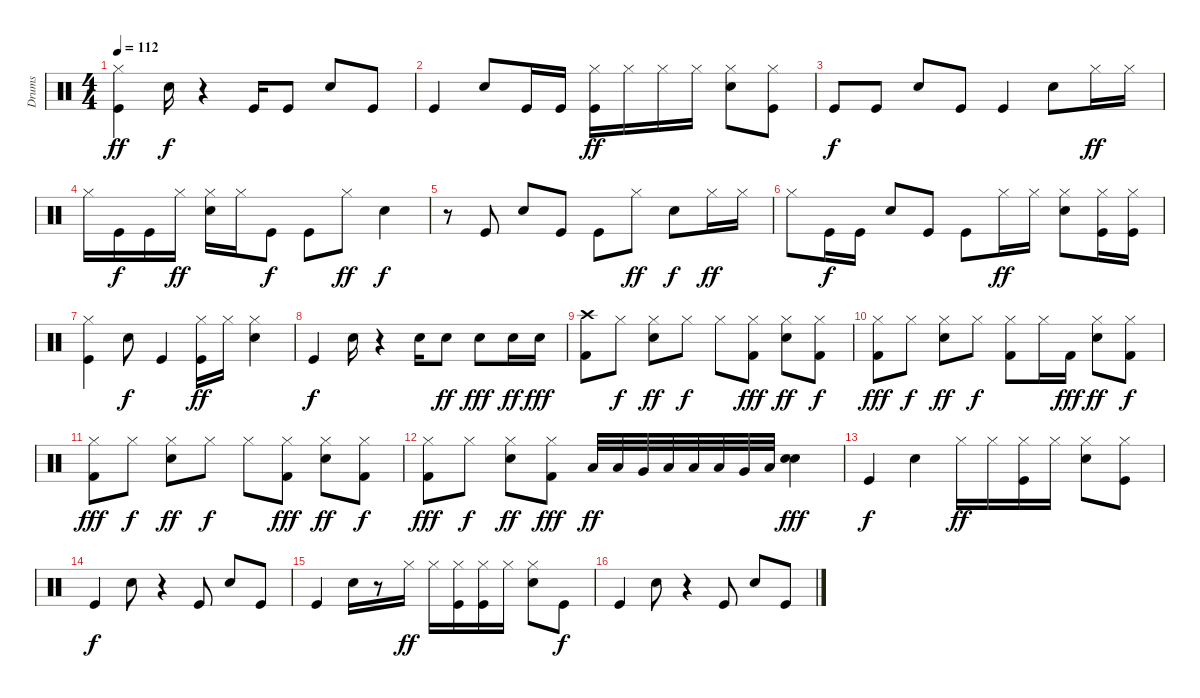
\track ("Drums" "Drums") {instrument percussion}
\staff {score}
\articulation defaults
\ts (4 4)
\tempo 112
\clef neutral
\ks c
("Hi-Hat (closed)" "Kick (hit)").4{dy ff} "Snare (hit) 2".16{dy f} r.4 "Kick (hit)".16 "Kick (hit)".8 "Snare (hit) 2".8 "Kick (hit)".8 |
"Kick (hit)".4 "Snare (hit) 2".8 "Kick (hit)".16 "Kick (hit)".16 ("Hi-Hat (closed)" "Kick (hit)").16{dy ff} "Hi-Hat (closed)".16 "Hi-Hat (closed)".16 "Hi-Hat (closed)".16 ("Hi-Hat (closed)" "Snare (hit) 2").8 ("Kick (hit)" "Hi-Hat (closed)").8 |
"Kick (hit)".8{dy f} "Kick (hit)".8 "Snare (hit) 2".8 "Kick (hit)".8 "Kick (hit)".4 "Snare (hit) 2".8 "Hi-Hat (closed)".16{dy ff} "Hi-Hat (closed)".16 |
"Hi-Hat (closed)".16 "Kick (hit)".16{dy f} "Kick (hit)".16 "Hi-Hat (closed)".16{dy ff} ("Hi-Hat (closed)" "Snare (hit) 2").16 "Hi-Hat (closed)".16 "Kick (hit)".8{dy f} "Kick (hit)".8 "Hi-Hat (closed)".8{dy ff} "Snare (hit) 2".4{dy f} |
r.8 "Kick (hit)".8 "Snare (hit) 2".8 "Kick (hit)".8 "Kick (hit)".8 "Hi-Hat (closed)".8{dy ff} "Snare (hit) 2".8{dy f} "Hi-Hat (closed)".16{dy ff} "Hi-Hat (closed)".16 |
"Hi-Hat (closed)".8 "Kick (hit)".16{dy f} "Kick (hit)".16 "Snare (hit) 2".8 "Kick (hit)".8 "Kick (hit)".8 "Hi-Hat (closed)".16{dy ff} "Hi-Hat (closed)".16 ("Hi-Hat (closed)" "Snare (hit) 2").8 ("Hi-Hat (closed)" "Kick (hit)").16 ("Hi-Hat (closed)" "Kick (hit)").16 |
("Hi-Hat (closed)" "Kick (hit)").4 "Snare (hit) 2".8{dy f} "Kick (hit)".4 ("Hi-Hat (closed)" "Kick (hit)").16{dy ff} "Hi-Hat (closed)".16 ("Hi-Hat (closed)" "Snare (hit) 2").4 |
"Kick (hit)".4{dy f} "Snare (hit) 2".16 r.4 "Snare (hit) 2".16 "Snare (hit) 2".8{dy ff} "Snare (hit) 2".8{dy fff} "Snare (hit) 2".16{dy ff} "Snare (hit) 2".16{dy fff} |
("Kick (hit) 2" "Crash high (hit)").8 "Hi-Hat (closed)".8{dy f} ("Hi-Hat (closed)" "Snare (hit) 2").8{dy ff} "Hi-Hat (closed)".8{dy f} "Hi-Hat (closed)".8 ("Hi-Hat (closed)" "Kick (hit) 2").8{dy fff} ("Hi-Hat (closed)" "Snare (hit) 2").8{dy ff} ("Hi-Hat (closed)" "Kick (hit) 2").8{dy f} |
("Hi-Hat (closed)" "Kick (hit) 2").8{dy fff} "Hi-Hat (closed)".8{dy f} ("Hi-Hat (closed)" "Snare (hit) 2").8{dy ff} "Hi-Hat (closed)".8{dy f} ("Kick (hit) 2" "Hi-Hat (closed)").8 "Hi-Hat (closed)".16 "Kick (hit) 2".16{dy fff} ("Hi-Hat (closed)" "Snare (hit) 2").8{dy ff} ("Kick (hit) 2" "Hi-Hat (closed)").8{dy f} |
("Hi-Hat (closed)" "Kick (hit) 2").8{dy fff} "Hi-Hat (closed)".8{dy f} ("Hi-Hat (closed)" "Snare (hit) 2").8{dy ff} "Hi-Hat (closed)".8{dy f} "Hi-Hat (closed)".8 ("Hi-Hat (closed)" "Kick (hit) 2").8{dy fff} ("Hi-Hat (closed)" "Snare (hit) 2").8{dy ff} ("Kick (hit) 2" "Hi-Hat (closed)").8{dy f} |
("Hi-Hat (closed)" "Kick (hit) 2").8{dy fff} "Hi-Hat (closed)".8{dy f} ("Hi-Hat (closed)" "Snare (hit) 2").8{dy ff} ("Kick (hit) 2" "Hi-Hat (closed)").8{dy fff} "Low Tom (hit)".32{dy ff} "Low Tom (hit)".32 "Very Low Tom (hit)".32 "Low Floor Tom (hit)".32 "Low Tom (hit)".32 "Low Tom (hit)".32 "Very Low Tom (hit)".32 "Low Floor Tom (hit)".32 ("Snare (hit) 2" "Snare (hit) 2").4{dy fff} |
"Kick (hit)".4{dy f} "Snare (hit) 2".4 "Hi-Hat (closed)".16{dy ff} "Hi-Hat (closed)".16 ("Hi-Hat (closed)" "Kick (hit)").16 "Hi-Hat (closed)".16 ("Hi-Hat (closed)" "Snare (hit) 2").8 ("Hi-Hat (closed)" "Kick (hit)").8 |
"Kick (hit)".4{dy f} "Snare (hit) 2".8 r.4 "Kick (hit)".8 "Snare (hit) 2".8 "Kick (hit)".8 |
"Kick (hit)".4 "Snare (hit) 2".16 r.8 "Hi-Hat (closed)".16{dy ff} "Hi-Hat (closed)".16 ("Kick (hit)" "Hi-Hat (closed)").16 ("Hi-Hat (closed)" "Kick (hit)").16 "Hi-Hat (closed)".16 ("Hi-Hat (closed)" "Snare (hit) 2").8 "Kick (hit)".8{dy f} |
"Kick (hit)".4 "Snare (hit) 2".8 r.4 "Kick (hit)".8 "Snare (hit) 2".8 "Kick (hit)".8
